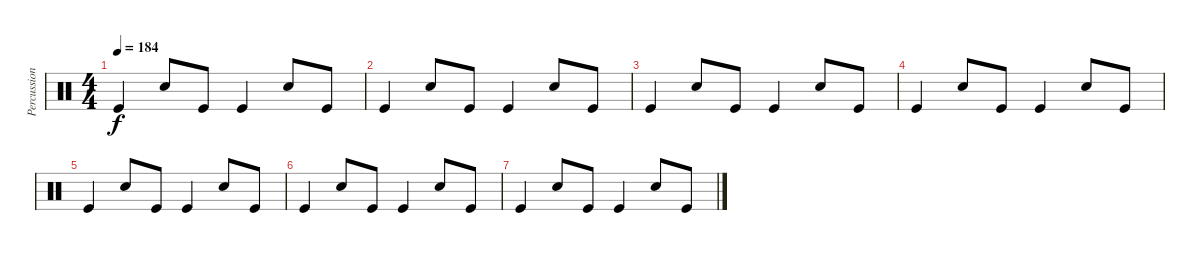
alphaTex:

\track ("Percussion" "Percussion") {instrument percussion}
\staff {score}
\articulation defaults
\ts (4 4)
\tempo 184
\clef neutral
\ks c "Kick (hit)".4{dy f} "Snare (hit) 2".8 "Kick (hit)".8 "Kick (hit)".4 "Snare (hit) 2".8 "Kick (hit)".8
|
"Kick (hit)".4 "Snare (hit) 2".8 "Kick (hit)".8 "Kick (hit)".4 "Snare (hit) 2".8 "Kick (hit)".8 |
"Kick (hit)".4 "Snare (hit) 2".8 "Kick (hit)".8 "Kick (hit)".4 "Snare (hit) 2".8 "Kick (hit)".8 |
"Kick (hit)".4 "Snare (hit) 2".8 "Kick (hit)".8 "Kick (hit)".4 "Snare (hit) 2".8 "Kick (hit)".8 |
"Kick (hit)".4 "Snare (hit) 2".8 "Kick (hit)".8 "Kick (hit)".4 "Snare (hit) 2".8 "Kick (hit)".8 |
"Kick (hit)".4 "Snare (hit) 2".8 "Kick (hit)".8 "Kick (hit)".4 "Snare (hit) 2".8 "Kick (hit)".8 |
"Kick (hit)".4 "Snare (hit) 2".8 "Kick (hit)".8 "Kick (hit)".4 "Snare (hit) 2".8 "Kick (hit)".8
